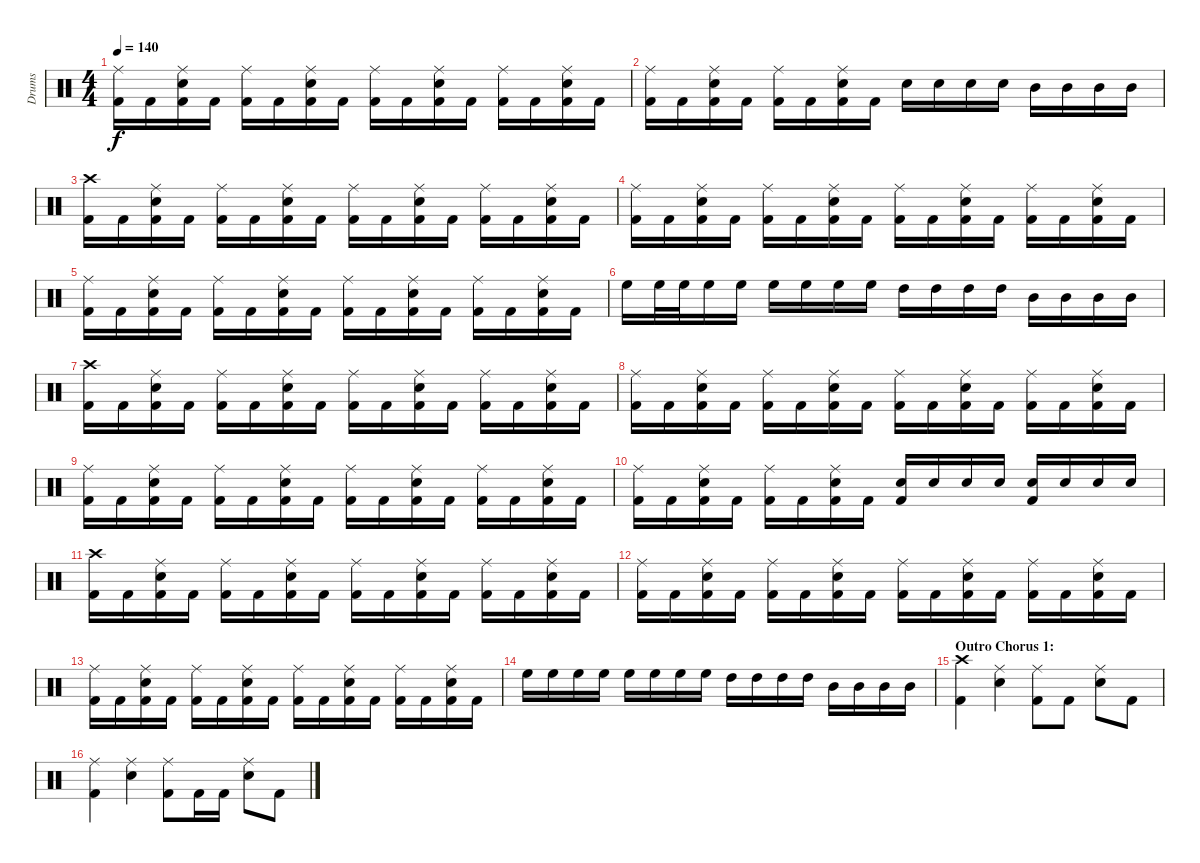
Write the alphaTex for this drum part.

\track ("Drums" "Drums") {instrument percussion}
\staff {score}
\articulation defaults
\ts (4 4)
\tempo 140
\clef neutral
\ks c
("Ride (middle)" "Kick (hit) 2").16{dy f} "Kick (hit) 2".16 ("Ride (middle)" "Electric Snare (hit)" "Kick (hit) 2").16 "Kick (hit) 2".16 ("Ride (middle)" "Kick (hit) 2").16 "Kick (hit) 2".16 ("Ride (middle)" "Electric Snare (hit)" "Kick (hit) 2").16 "Kick (hit) 2".16 ("Ride (middle)" "Kick (hit) 2").16 "Kick (hit) 2".16 ("Ride (middle)" "Electric Snare (hit)" "Kick (hit) 2").16 "Kick (hit) 2".16 ("Ride (middle)" "Kick (hit) 2").16 "Kick (hit) 2".16 ("Ride (middle)" "Electric Snare (hit)" "Kick (hit) 2").16 "Kick (hit) 2".16 |
("Ride (middle)" "Kick (hit) 2").16 "Kick (hit) 2".16 ("Ride (middle)" "Electric Snare (hit)" "Kick (hit) 2").16 "Kick (hit) 2".16 ("Ride (middle)" "Kick (hit) 2").16 "Kick (hit) 2".16 ("Ride (middle)" "Electric Snare (hit)" "Kick (hit) 2").16 "Kick (hit) 2".16 "Electric Snare (hit)".16 "Electric Snare (hit)".16 "Electric Snare (hit)".16 "Electric Snare (hit)".16 "Mid Tom (hit)".16 "Mid Tom (hit)".16 "Mid Tom (hit)".16 "Mid Tom (hit)".16 |
("Crash high (hit)" "Kick (hit) 2").16 "Kick (hit) 2".16 ("Ride (middle)" "Electric Snare (hit)" "Kick (hit) 2").16 "Kick (hit) 2".16 ("Ride (middle)" "Kick (hit) 2").16 "Kick (hit) 2".16 ("Ride (middle)" "Electric Snare (hit)" "Kick (hit) 2").16 "Kick (hit) 2".16 ("Ride (middle)" "Kick (hit) 2").16 "Kick (hit) 2".16 ("Ride (middle)" "Electric Snare (hit)" "Kick (hit) 2").16 "Kick (hit) 2".16 ("Ride (middle)" "Kick (hit) 2").16 "Kick (hit) 2".16 ("Ride (middle)" "Electric Snare (hit)" "Kick (hit) 2").16 "Kick (hit) 2".16 |
("Ride (middle)" "Kick (hit) 2").16 "Kick (hit) 2".16 ("Ride (middle)" "Electric Snare (hit)" "Kick (hit) 2").16 "Kick (hit) 2".16 ("Ride (middle)" "Kick (hit) 2").16 "Kick (hit) 2".16 ("Ride (middle)" "Electric Snare (hit)" "Kick (hit) 2").16 "Kick (hit) 2".16 ("Ride (middle)" "Kick (hit) 2").16 "Kick (hit) 2".16 ("Ride (middle)" "Electric Snare (hit)" "Kick (hit) 2").16 "Kick (hit) 2".16 ("Ride (middle)" "Kick (hit) 2").16 "Kick (hit) 2".16 ("Ride (middle)" "Electric Snare (hit)" "Kick (hit) 2").16 "Kick (hit) 2".16 |
("Ride (middle)" "Kick (hit) 2").16 "Kick (hit) 2".16 ("Ride (middle)" "Electric Snare (hit)" "Kick (hit) 2").16 "Kick (hit) 2".16 ("Ride (middle)" "Kick (hit) 2").16 "Kick (hit) 2".16 ("Ride (middle)" "Electric Snare (hit)" "Kick (hit) 2").16 "Kick (hit) 2".16 ("Ride (middle)" "Kick (hit) 2").16 "Kick (hit) 2".16 ("Ride (middle)" "Electric Snare (hit)" "Kick (hit) 2").16 "Kick (hit) 2".16 ("Ride (middle)" "Kick (hit) 2").16 "Kick (hit) 2".16 ("Ride (middle)" "Electric Snare (hit)" "Kick (hit) 2").16 "Kick (hit) 2".16 |
"High Floor Tom (hit)".16 "High Floor Tom (hit)".32 "High Floor Tom (hit)".32 "High Floor Tom (hit)".16 "High Floor Tom (hit)".16 "High Floor Tom (hit)".16 "High Floor Tom (hit)".16 "High Floor Tom (hit)".16 "High Floor Tom (hit)".16 "High Tom (hit)".16 "High Tom (hit)".16 "High Tom (hit)".16 "High Tom (hit)".16 "Mid Tom (hit)".16 "Mid Tom (hit)".16 "Mid Tom (hit)".16 "Mid Tom (hit)".16 |
("Crash high (hit)" "Kick (hit) 2").16 "Kick (hit) 2".16 ("Ride (middle)" "Electric Snare (hit)" "Kick (hit) 2").16 "Kick (hit) 2".16 ("Ride (middle)" "Kick (hit) 2").16 "Kick (hit) 2".16 ("Ride (middle)" "Electric Snare (hit)" "Kick (hit) 2").16 "Kick (hit) 2".16 ("Ride (middle)" "Kick (hit) 2").16 "Kick (hit) 2".16 ("Ride (middle)" "Electric Snare (hit)" "Kick (hit) 2").16 "Kick (hit) 2".16 ("Ride (middle)" "Kick (hit) 2").16 "Kick (hit) 2".16 ("Ride (middle)" "Electric Snare (hit)" "Kick (hit) 2").16 "Kick (hit) 2".16 |
("Ride (middle)" "Kick (hit) 2").16 "Kick (hit) 2".16 ("Ride (middle)" "Electric Snare (hit)" "Kick (hit) 2").16 "Kick (hit) 2".16 ("Ride (middle)" "Kick (hit) 2").16 "Kick (hit) 2".16 ("Ride (middle)" "Electric Snare (hit)" "Kick (hit) 2").16 "Kick (hit) 2".16 ("Ride (middle)" "Kick (hit) 2").16 "Kick (hit) 2".16 ("Ride (middle)" "Electric Snare (hit)" "Kick (hit) 2").16 "Kick (hit) 2".16 ("Ride (middle)" "Kick (hit) 2").16 "Kick (hit) 2".16 ("Ride (middle)" "Electric Snare (hit)" "Kick (hit) 2").16 "Kick (hit) 2".16 |
("Ride (middle)" "Kick (hit) 2").16 "Kick (hit) 2".16 ("Ride (middle)" "Electric Snare (hit)" "Kick (hit) 2").16 "Kick (hit) 2".16 ("Ride (middle)" "Kick (hit) 2").16 "Kick (hit) 2".16 ("Ride (middle)" "Electric Snare (hit)" "Kick (hit) 2").16 "Kick (hit) 2".16 ("Ride (middle)" "Kick (hit) 2").16 "Kick (hit) 2".16 ("Ride (middle)" "Electric Snare (hit)" "Kick (hit) 2").16 "Kick (hit) 2".16 ("Ride (middle)" "Kick (hit) 2").16 "Kick (hit) 2".16 ("Ride (middle)" "Electric Snare (hit)" "Kick (hit) 2").16 "Kick (hit) 2".16 |
("Ride (middle)" "Kick (hit) 2").16 "Kick (hit) 2".16 ("Ride (middle)" "Electric Snare (hit)" "Kick (hit) 2").16 "Kick (hit) 2".16 ("Ride (middle)" "Kick (hit) 2").16 "Kick (hit) 2".16 ("Ride (middle)" "Electric Snare (hit)" "Kick (hit) 2").16 "Kick (hit) 2".16 ("Electric Snare (hit)" "Kick (hit) 2").16 "Electric Snare (hit)".16 "Electric Snare (hit)".16 "Electric Snare (hit)".16 ("Electric Snare (hit)" "Kick (hit) 2").16 "Electric Snare (hit)".16 "Electric Snare (hit)".16 "Electric Snare (hit)".16 |
("Crash high (hit)" "Kick (hit) 2").16 "Kick (hit) 2".16 ("Ride (middle)" "Electric Snare (hit)" "Kick (hit) 2").16 "Kick (hit) 2".16 ("Ride (middle)" "Kick (hit) 2").16 "Kick (hit) 2".16 ("Ride (middle)" "Electric Snare (hit)" "Kick (hit) 2").16 "Kick (hit) 2".16 ("Ride (middle)" "Kick (hit) 2").16 "Kick (hit) 2".16 ("Ride (middle)" "Electric Snare (hit)" "Kick (hit) 2").16 "Kick (hit) 2".16 ("Ride (middle)" "Kick (hit) 2").16 "Kick (hit) 2".16 ("Ride (middle)" "Electric Snare (hit)" "Kick (hit) 2").16 "Kick (hit) 2".16 |
("Ride (middle)" "Kick (hit) 2").16 "Kick (hit) 2".16 ("Ride (middle)" "Electric Snare (hit)" "Kick (hit) 2").16 "Kick (hit) 2".16 ("Ride (middle)" "Kick (hit) 2").16 "Kick (hit) 2".16 ("Ride (middle)" "Electric Snare (hit)" "Kick (hit) 2").16 "Kick (hit) 2".16 ("Ride (middle)" "Kick (hit) 2").16 "Kick (hit) 2".16 ("Ride (middle)" "Electric Snare (hit)" "Kick (hit) 2").16 "Kick (hit) 2".16 ("Ride (middle)" "Kick (hit) 2").16 "Kick (hit) 2".16 ("Ride (middle)" "Electric Snare (hit)" "Kick (hit) 2").16 "Kick (hit) 2".16 |
("Ride (middle)" "Kick (hit) 2").16 "Kick (hit) 2".16 ("Ride (middle)" "Electric Snare (hit)" "Kick (hit) 2").16 "Kick (hit) 2".16 ("Ride (middle)" "Kick (hit) 2").16 "Kick (hit) 2".16 ("Ride (middle)" "Electric Snare (hit)" "Kick (hit) 2").16 "Kick (hit) 2".16 ("Ride (middle)" "Kick (hit) 2").16 "Kick (hit) 2".16 ("Ride (middle)" "Electric Snare (hit)" "Kick (hit) 2").16 "Kick (hit) 2".16 ("Ride (middle)" "Kick (hit) 2").16 "Kick (hit) 2".16 ("Ride (middle)" "Electric Snare (hit)" "Kick (hit) 2").16 "Kick (hit) 2".16 |
"High Floor Tom (hit)".16 "High Floor Tom (hit)".16 "High Floor Tom (hit)".16 "High Floor Tom (hit)".16 "High Floor Tom (hit)".16 "High Floor Tom (hit)".16 "High Floor Tom (hit)".16 "High Floor Tom (hit)".16 "High Tom (hit)".16 "High Tom (hit)".16 "High Tom (hit)".16 "High Tom (hit)".16 "Mid Tom (hit)".16 "Mid Tom (hit)".16 "Mid Tom (hit)".16 "Mid Tom (hit)".16 |
\section ("" "Outro Chorus 1:")
("Crash high (hit)" "Kick (hit) 2").4 ("Ride (middle)" "Electric Snare (hit)").4 ("Ride (middle)" "Kick (hit) 2").8 "Kick (hit) 2".8 ("Ride (middle)" "Electric Snare (hit)").8 "Kick (hit) 2".8 |
("Ride (middle)" "Kick (hit) 2").4 ("Ride (middle)" "Electric Snare (hit)").4 ("Ride (middle)" "Kick (hit) 2").8 "Kick (hit) 2".16 "Kick (hit) 2".16 ("Ride (middle)" "Electric Snare (hit)").8 "Kick (hit) 2".8
